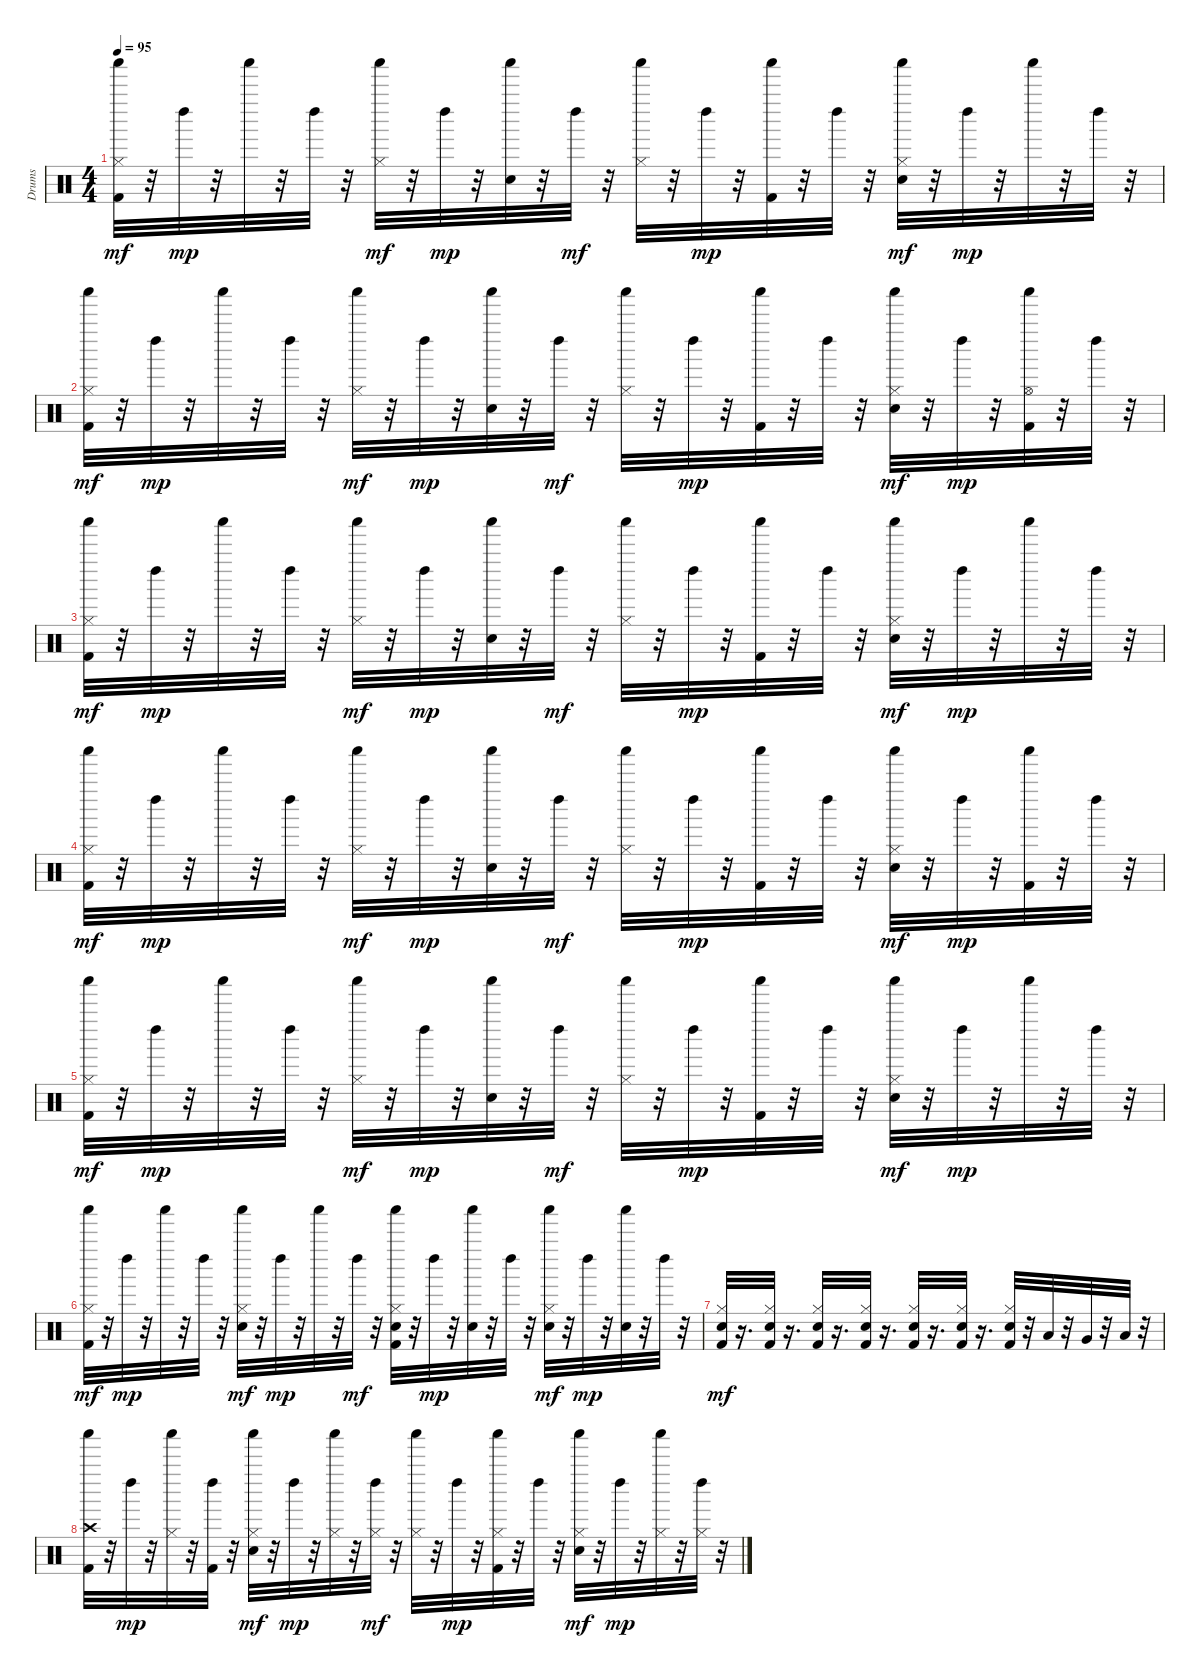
\track ("Drums" "Drums") {instrument percussion}
\staff {score}
\articulation defaults
\ts (4 4)
\tempo 95
\clef neutral
\ks c
("Kick (hit) 2" "Hi-Hat (closed)" "Shaker (hit)").32{dy mf} r.32 "Left Maraca (hit)".32{dy mp} r.32 "Shaker (hit)".32 r.32 "Left Maraca (hit)".32 r.32 ("Hi-Hat (closed)" "Shaker (hit)").32{dy mf} r.32 "Left Maraca (hit)".32{dy mp} r.32 ("Electric Snare (hit)" "Shaker (hit)").32 r.32 "Left Maraca (hit)".32{dy mf} r.32 ("Hi-Hat (closed)" "Shaker (hit)").32 r.32 "Left Maraca (hit)".32{dy mp} r.32 ("Kick (hit) 2" "Shaker (hit)").32 r.32 "Left Maraca (hit)".32 r.32 ("Electric Snare (hit)" "Hi-Hat (closed)" "Shaker (hit)").32{dy mf} r.32 "Left Maraca (hit)".32{dy mp} r.32 "Shaker (hit)".32 r.32 "Left Maraca (hit)".32 r.32 |
("Kick (hit) 2" "Hi-Hat (closed)" "Shaker (hit)").32{dy mf} r.32 "Left Maraca (hit)".32{dy mp} r.32 "Shaker (hit)".32 r.32 "Left Maraca (hit)".32 r.32 ("Hi-Hat (closed)" "Shaker (hit)").32{dy mf} r.32 "Left Maraca (hit)".32{dy mp} r.32 ("Electric Snare (hit)" "Shaker (hit)").32 r.32 "Left Maraca (hit)".32{dy mf} r.32 ("Hi-Hat (closed)" "Shaker (hit)").32 r.32 "Left Maraca (hit)".32{dy mp} r.32 ("Kick (hit) 2" "Shaker (hit)").32 r.32 "Left Maraca (hit)".32 r.32 ("Electric Snare (hit)" "Hi-Hat (closed)" "Shaker (hit)").32{dy mf} r.32 "Left Maraca (hit)".32{dy mp} r.32 ("Kick (hit) 2" "Hi-Hat (open)" "Shaker (hit)").32 r.32 "Left Maraca (hit)".32 r.32 |
("Kick (hit) 2" "Hi-Hat (closed)" "Shaker (hit)").32{dy mf} r.32 "Left Maraca (hit)".32{dy mp} r.32 "Shaker (hit)".32 r.32 "Left Maraca (hit)".32 r.32 ("Hi-Hat (closed)" "Shaker (hit)").32{dy mf} r.32 "Left Maraca (hit)".32{dy mp} r.32 ("Electric Snare (hit)" "Shaker (hit)").32 r.32 "Left Maraca (hit)".32{dy mf} r.32 ("Hi-Hat (closed)" "Shaker (hit)").32 r.32 "Left Maraca (hit)".32{dy mp} r.32 ("Kick (hit) 2" "Shaker (hit)").32 r.32 "Left Maraca (hit)".32 r.32 ("Electric Snare (hit)" "Hi-Hat (closed)" "Shaker (hit)").32{dy mf} r.32 "Left Maraca (hit)".32{dy mp} r.32 "Shaker (hit)".32 r.32 "Left Maraca (hit)".32 r.32 |
("Kick (hit) 2" "Hi-Hat (closed)" "Shaker (hit)").32{dy mf} r.32 "Left Maraca (hit)".32{dy mp} r.32 "Shaker (hit)".32 r.32 "Left Maraca (hit)".32 r.32 ("Hi-Hat (closed)" "Shaker (hit)").32{dy mf} r.32 "Left Maraca (hit)".32{dy mp} r.32 ("Electric Snare (hit)" "Shaker (hit)").32 r.32 "Left Maraca (hit)".32{dy mf} r.32 ("Hi-Hat (closed)" "Shaker (hit)").32 r.32 "Left Maraca (hit)".32{dy mp} r.32 ("Kick (hit) 2" "Shaker (hit)").32 r.32 "Left Maraca (hit)".32 r.32 ("Electric Snare (hit)" "Hi-Hat (closed)" "Shaker (hit)").32{dy mf} r.32 "Left Maraca (hit)".32{dy mp} r.32 ("Kick (hit) 2" "Shaker (hit)").32 r.32 "Left Maraca (hit)".32 r.32 |
("Kick (hit) 2" "Hi-Hat (closed)" "Shaker (hit)").32{dy mf} r.32 "Left Maraca (hit)".32{dy mp} r.32 "Shaker (hit)".32 r.32 "Left Maraca (hit)".32 r.32 ("Hi-Hat (closed)" "Shaker (hit)").32{dy mf} r.32 "Left Maraca (hit)".32{dy mp} r.32 ("Electric Snare (hit)" "Shaker (hit)").32 r.32 "Left Maraca (hit)".32{dy mf} r.32 ("Hi-Hat (closed)" "Shaker (hit)").32 r.32 "Left Maraca (hit)".32{dy mp} r.32 ("Kick (hit) 2" "Shaker (hit)").32 r.32 "Left Maraca (hit)".32 r.32 ("Electric Snare (hit)" "Hi-Hat (closed)" "Shaker (hit)").32{dy mf} r.32 "Left Maraca (hit)".32{dy mp} r.32 "Shaker (hit)".32 r.32 "Left Maraca (hit)".32 r.32 |
("Kick (hit) 2" "Hi-Hat (closed)" "Shaker (hit)").32{dy mf} r.32 "Left Maraca (hit)".32{dy mp} r.32 "Shaker (hit)".32 r.32 "Left Maraca (hit)".32 r.32 ("Electric Snare (hit)" "Hi-Hat (closed)" "Shaker (hit)").32{dy mf} r.32 "Left Maraca (hit)".32{dy mp} r.32 "Shaker (hit)".32 r.32 "Left Maraca (hit)".32{dy mf} r.32 ("Electric Snare (hit)" "Hi-Hat (closed)" "Shaker (hit)" "Kick (hit) 2").32 r.32 "Left Maraca (hit)".32{dy mp} r.32 ("Electric Snare (hit)" "Shaker (hit)").32 r.32 "Left Maraca (hit)".32 r.32 ("Electric Snare (hit)" "Hi-Hat (closed)" "Shaker (hit)").32{dy mf} r.32 "Left Maraca (hit)".32{dy mp} r.32 ("Electric Snare (hit)" "Shaker (hit)").32 r.32 "Left Maraca (hit)".32 r.32 |
("Kick (hit) 2" "Electric Snare (hit)" "Hi-Hat (closed)").32{dy mf} r.16{d} ("Kick (hit) 2" "Electric Snare (hit)" "Hi-Hat (closed)").32 r.16{d} ("Kick (hit) 2" "Electric Snare (hit)" "Hi-Hat (closed)").32 r.16{d} ("Kick (hit) 2" "Electric Snare (hit)" "Hi-Hat (closed)").32 r.16{d} ("Kick (hit) 2" "Electric Snare (hit)" "Hi-Hat (closed)").32 r.16{d} ("Kick (hit) 2" "Electric Snare (hit)" "Hi-Hat (closed)").32 r.16{d} ("Kick (hit) 2" "Electric Snare (hit)" "Hi-Hat (closed)").32 r.32 "Low Tom (hit)".32 r.32 "Very Low Tom (hit)".32 r.32 "Low Floor Tom (hit)".32 r.32 |
("Kick (hit) 2" "Crash high (hit)" "Shaker (hit)").32 r.32 "Left Maraca (hit)".32{dy mp} r.32 ("Hi-Hat (closed)" "Shaker (hit)").32 r.32 ("Kick (hit) 2" "Left Maraca (hit)").32 r.32 ("Electric Snare (hit)" "Hi-Hat (closed)" "Shaker (hit)").32{dy mf} r.32 "Left Maraca (hit)".32{dy mp} r.32 ("Hi-Hat (closed)" "Shaker (hit)").32 r.32 ("Hi-Hat (closed)" "Left Maraca (hit)").32{dy mf} r.32 ("Hi-Hat (closed)" "Shaker (hit)").32 r.32 "Left Maraca (hit)".32{dy mp} r.32 ("Kick (hit) 2" "Hi-Hat (closed)" "Shaker (hit)").32 r.32 "Left Maraca (hit)".32 r.32 ("Electric Snare (hit)" "Hi-Hat (closed)" "Shaker (hit)").32{dy mf} r.32 "Left Maraca (hit)".32{dy mp} r.32 ("Hi-Hat (closed)" "Shaker (hit)").32 r.32 ("Hi-Hat (closed)" "Left Maraca (hit)").32 r.32
